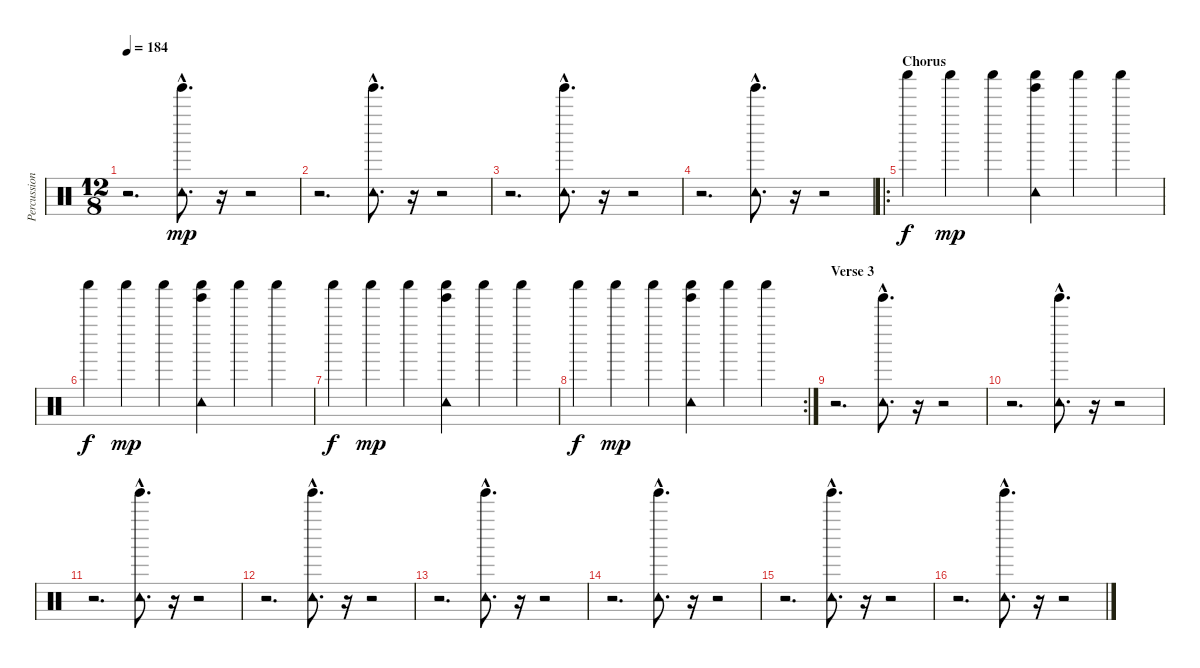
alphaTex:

\track ("Percussion" "Percussion") {instrument percussion}
\staff {score}
\articulation defaults
\ts (12 8)
\tempo 184
\clef neutral
\ks c
r.2{d dy mp} ("Tambourine (hit)"{hac} "Tinkle Bell (hit)"{hac}).8{d} r.16 r.2 |
r.2{d} ("Tambourine (hit)"{hac} "Tinkle Bell (hit)"{hac}).8{d} r.16 r.2 |
r.2{d} ("Tambourine (hit)"{hac} "Tinkle Bell (hit)"{hac}).8{d} r.16 r.2 |
r.2{d} ("Tambourine (hit)"{hac} "Tinkle Bell (hit)"{hac}).8{d} r.16 r.2 |
\ro
\section ("" "Chorus")
"Shaker (hit)".4{dy f} "Shaker (hit)".4{dy mp} "Shaker (hit)".4 ("Tambourine (hit)" "Shaker (hit)" "Tinkle Bell (hit)").4 "Shaker (hit)".4 "Shaker (hit)".4 |
"Shaker (hit)".4{dy f} "Shaker (hit)".4{dy mp} "Shaker (hit)".4 ("Tambourine (hit)" "Shaker (hit)" "Tinkle Bell (hit)").4 "Shaker (hit)".4 "Shaker (hit)".4 |
"Shaker (hit)".4{dy f} "Shaker (hit)".4{dy mp} "Shaker (hit)".4 ("Tambourine (hit)" "Shaker (hit)" "Tinkle Bell (hit)").4 "Shaker (hit)".4 "Shaker (hit)".4 |
\rc 2 "Shaker (hit)".4{dy f} "Shaker (hit)".4{dy mp} "Shaker (hit)".4
("Tambourine (hit)" "Shaker (hit)" "Tinkle Bell (hit)").4 "Shaker (hit)".4 "Shaker (hit)".4 |
\section ("" "Verse 3")
r.2{d} ("Tambourine (hit)"{hac} "Tinkle Bell (hit)"{hac}).8{d} r.16 r.2 |
r.2{d} ("Tambourine (hit)"{hac} "Tinkle Bell (hit)"{hac}).8{d} r.16 r.2 |
r.2{d} ("Tambourine (hit)"{hac} "Tinkle Bell (hit)"{hac}).8{d} r.16 r.2 |
r.2{d} ("Tambourine (hit)"{hac} "Tinkle Bell (hit)"{hac}).8{d} r.16 r.2 |
r.2{d} ("Tambourine (hit)"{hac} "Tinkle Bell (hit)"{hac}).8{d} r.16 r.2 |
r.2{d} ("Tambourine (hit)"{hac} "Tinkle Bell (hit)"{hac}).8{d} r.16 r.2 |
r.2{d} ("Tambourine (hit)"{hac} "Tinkle Bell (hit)"{hac}).8{d} r.16 r.2 |
r.2{d} ("Tambourine (hit)"{hac} "Tinkle Bell (hit)"{hac}).8{d} r.16 r.2
